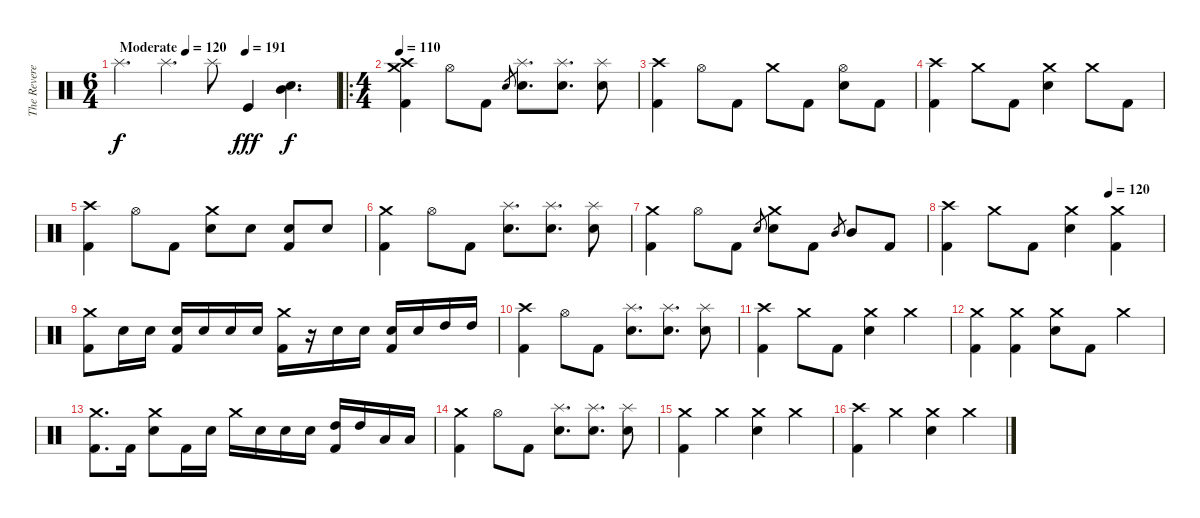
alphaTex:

\track ("The Reverend" "The Revere") {instrument percussion}
\staff {score}
\articulation defaults
\ts (6 4)
\tempo (120 "Moderate")
\tempo 137
\tempo (191 0.5833333333333334)
\tempo (120 "Moderate")
\clef neutral
\ks c "Splash (hit)".4{d dy f} "Splash (hit)".4{d} "Splash (hit)".8 "Kick (hit)".4{dy fff volume 16}
("Mid Tom (hit)" "Snare (hit) 2").4{d dy f} |
\ro
\ts (4 4)
\tempo 110
("Crash medium (hit)" "Crash high (hit)" "Kick (hit) 2").4 "Hi-Hat (open)".8 "Kick (hit) 2".8 "Electric Snare (hit)".8{gr} ("Splash (hit)" "Electric Snare (hit)").8{d} ("Splash (hit)" "Electric Snare (hit)").8{d} ("Splash (hit)" "Electric Snare (hit)").8 |
("Crash high (hit)" "Kick (hit) 2").4 "Hi-Hat (open)".8 "Kick (hit) 2".8 "Crash medium (hit)".8 "Kick (hit) 2".8 ("Hi-Hat (open)" "Electric Snare (hit)").8 "Kick (hit) 2".8 |
("Crash high (hit)" "Kick (hit) 2").4 "Crash medium (hit)".8 "Kick (hit) 2".8 ("Crash medium (hit)" "Electric Snare (hit)").4 "Crash medium (hit)".8 "Kick (hit) 2".8 |
("Crash high (hit)" "Kick (hit) 2").4 "Hi-Hat (open)".8 "Kick (hit) 2".8 ("Crash medium (hit)" "Electric Snare (hit)").8 "Electric Snare (hit)".8 ("Electric Snare (hit)" "Kick (hit) 2").8 "Electric Snare (hit)".8 |
("Crash medium (hit)" "Kick (hit) 2").4 "Hi-Hat (open)".8 "Kick (hit) 2".8 ("Splash (hit)" "Electric Snare (hit)").8{d} ("Splash (hit)" "Electric Snare (hit)").8{d} ("Splash (hit)" "Electric Snare (hit)").8 |
("Crash medium (hit)" "Kick (hit) 2").4 "Hi-Hat (open)".8 "Kick (hit) 2".8 "Electric Snare (hit)".8{gr} ("Crash medium (hit)" "Electric Snare (hit)").8 "Kick (hit) 2".8 "Mid Tom (hit)".8{gr} "Mid Tom (hit)".8 "Kick (hit) 2".8 |
\tempo (120 0.75)
("Crash high (hit)" "Kick (hit) 2").4 "Crash medium (hit)".8 "Kick (hit) 2".8 ("Crash medium (hit)" "Electric Snare (hit)").4 ("Crash medium (hit)" "Kick (hit) 2").4 |
("Crash medium (hit)" "Kick (hit) 2").8 "Electric Snare (hit)".16 "Electric Snare (hit)".16 ("Electric Snare (hit)" "Kick (hit) 2").16 "Electric Snare (hit)".16 "Electric Snare (hit)".16 "Electric Snare (hit)".16 ("Crash medium (hit)" "Kick (hit) 2").16 r.16 "Electric Snare (hit)".16 "Electric Snare (hit)".16 ("Electric Snare (hit)" "Kick (hit) 2").16 "Electric Snare (hit)".16 "High Tom (hit)".16 "High Tom (hit)".16 |
("Crash high (hit)" "Kick (hit) 2").4 "Hi-Hat (open)".8 "Kick (hit) 2".8 ("Splash (hit)" "Electric Snare (hit)").8{d} ("Splash (hit)" "Electric Snare (hit)").8{d} ("Splash (hit)" "Electric Snare (hit)").8 |
("Crash high (hit)" "Kick (hit) 2").4 "Crash medium (hit)".8 "Kick (hit) 2".8 ("Crash medium (hit)" "Electric Snare (hit)").4 "Crash medium (hit)".4 |
("Crash medium (hit)" "Kick (hit) 2").4 ("Crash medium (hit)" "Kick (hit) 2").4 ("Crash medium (hit)" "Electric Snare (hit)").8 "Kick (hit) 2".8 "Crash medium (hit)".4 |
("Crash medium (hit)" "Kick (hit) 2").8{d} "Kick (hit) 2".16 ("Crash medium (hit)" "Electric Snare (hit)").8 "Kick (hit) 2".16 "Electric Snare (hit)".16 "Crash medium (hit)".16 "Electric Snare (hit)".16 "Electric Snare (hit)".16 "Electric Snare (hit)".16 ("High Tom (hit)" "Kick (hit) 2").16 "High Tom (hit)".16 "Low Tom (hit)".16 "Low Tom (hit)".16 |
("Crash medium (hit)" "Kick (hit) 2").4 "Hi-Hat (open)".8 "Kick (hit) 2".8 ("Splash (hit)" "Electric Snare (hit)").8{d} ("Splash (hit)" "Electric Snare (hit)").8{d} ("Splash (hit)" "Electric Snare (hit)").8 |
("Crash medium (hit)" "Kick (hit) 2").4 "Crash medium (hit)".4 ("Crash medium (hit)" "Electric Snare (hit)").4 "Crash medium (hit)".4 |
("Crash high (hit)" "Kick (hit) 2").4 "Crash medium (hit)".4 ("Crash medium (hit)" "Electric Snare (hit)").4 "Crash medium (hit)".4
